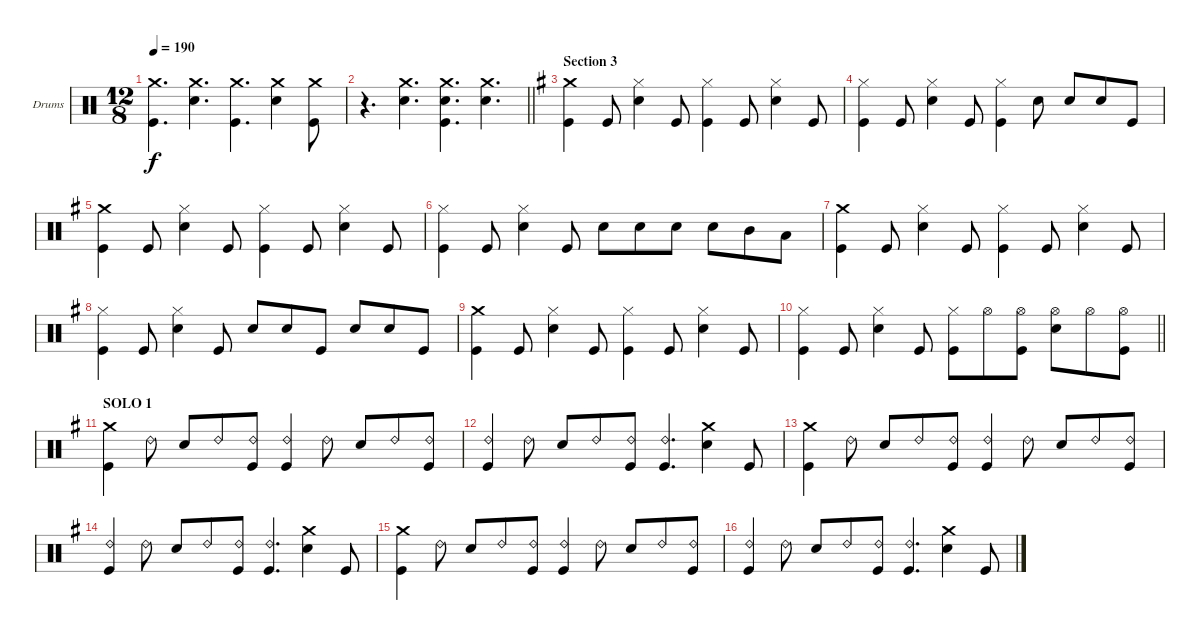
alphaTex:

\bracketExtendMode groupsimilarinstruments
\firstSystemTrackNameOrientation horizontal
\otherSystemsTrackNameOrientation horizontal
\track ("Drumkit" "Drums") {instrument percussion}
\staff {score}
\articulation defaults
\ts (12 8)
\tempo 190
\clef neutral
\ks aminor
("Crash medium (hit)" "Kick (hit)").4{d dy f} ("Crash medium (hit)" "Snare (hit) 2").4{d} ("Crash medium (hit)" "Kick (hit)").4{d} ("Crash medium (hit)" "Snare (hit) 2").4 ("Crash medium (hit)" "Kick (hit)").8 |
\barLineRight lightlight
r.4{d} ("Crash medium (hit)" "Snare (hit) 2").4{d} ("Crash medium (hit)" "Snare (hit) 2" "Kick (hit)").4{d} ("Crash medium (hit)" "Snare (hit) 2").4{d} |
\section ("" "Section 3 ")
\ks eminor
("Crash medium (hit)" "Kick (hit)").4 "Kick (hit)".8 ("Hi-Hat (closed)" "Snare (hit) 2").4 "Kick (hit)".8 ("Hi-Hat (closed)" "Kick (hit)").4 "Kick (hit)".8 ("Hi-Hat (closed)" "Snare (hit) 2").4 "Kick (hit)".8 |
("Hi-Hat (closed)" "Kick (hit)").4 "Kick (hit)".8 ("Hi-Hat (closed)" "Snare (hit) 2").4 "Kick (hit)".8 ("Hi-Hat (closed)" "Kick (hit)").4 "Snare (hit) 2".8 "Snare (hit) 2".8 "Snare (hit) 2".8 "Kick (hit)".8 |
("Crash medium (hit)" "Kick (hit)").4 "Kick (hit)".8 ("Hi-Hat (closed)" "Snare (hit) 2").4 "Kick (hit)".8 ("Hi-Hat (closed)" "Kick (hit)").4 "Kick (hit)".8 ("Hi-Hat (closed)" "Snare (hit) 2").4 "Kick (hit)".8 |
("Hi-Hat (closed)" "Kick (hit)").4 "Kick (hit)".8 ("Hi-Hat (closed)" "Snare (hit) 2").4 "Kick (hit)".8 "Snare (hit) 2".8 "Snare (hit) 2".8 "Snare (hit) 2".8 "Snare (hit) 2".8 "Mid Tom (hit)".8 "Low Tom (hit)".8 |
("Crash medium (hit)" "Kick (hit)").4 "Kick (hit)".8 ("Hi-Hat (closed)" "Snare (hit) 2").4 "Kick (hit)".8 ("Hi-Hat (closed)" "Kick (hit)").4 "Kick (hit)".8 ("Hi-Hat (closed)" "Snare (hit) 2").4 "Kick (hit)".8 |
("Hi-Hat (closed)" "Kick (hit)").4 "Kick (hit)".8 ("Hi-Hat (closed)" "Snare (hit) 2").4 "Kick (hit)".8 "Snare (hit) 2".8 "Snare (hit) 2".8 "Kick (hit)".8 "Snare (hit) 2".8 "Snare (hit) 2".8 "Kick (hit)".8 |
("Crash medium (hit)" "Kick (hit)").4 "Kick (hit)".8 ("Hi-Hat (closed)" "Snare (hit) 2").4 "Kick (hit)".8 ("Hi-Hat (closed)" "Kick (hit)").4 "Kick (hit)".8 ("Hi-Hat (closed)" "Snare (hit) 2").4 "Kick (hit)".8 |
\barLineRight lightlight
("Hi-Hat (closed)" "Kick (hit)").4 "Kick (hit)".8 ("Hi-Hat (closed)" "Snare (hit) 2").4 "Kick (hit)".8 ("Hi-Hat (closed)" "Kick (hit)").8 "Hi-Hat (open)".8 ("Hi-Hat (open)" "Kick (hit)").8 ("Hi-Hat (open)" "Snare (hit) 2").8 "Hi-Hat (open)".8 ("Hi-Hat (open)" "Kick (hit)").8 |
\section ("" "SOLO 1")
("Crash medium (hit)" "Kick (hit)").4 "Ride (bell) 2".8 "Snare (hit) 2".8 "Ride (bell) 2".8 ("Ride (bell) 2" "Kick (hit)").8 ("Ride (bell) 2" "Kick (hit)").4 "Ride (bell) 2".8 "Snare (hit) 2".8 "Ride (bell) 2".8 ("Ride (bell) 2" "Kick (hit)").8 |
("Ride (bell) 2" "Kick (hit)").4 "Ride (bell) 2".8 "Snare (hit) 2".8 "Ride (bell) 2".8 ("Ride (bell) 2" "Kick (hit)").8 ("Ride (bell) 2" "Kick (hit)").4{d} ("Crash medium (hit)" "Snare (hit) 2").4 "Kick (hit)".8 |
("Crash medium (hit)" "Kick (hit)").4 "Ride (bell) 2".8 "Snare (hit) 2".8 "Ride (bell) 2".8 ("Ride (bell) 2" "Kick (hit)").8 ("Ride (bell) 2" "Kick (hit)").4 "Ride (bell) 2".8 "Snare (hit) 2".8 "Ride (bell) 2".8 ("Ride (bell) 2" "Kick (hit)").8 |
("Ride (bell) 2" "Kick (hit)").4 "Ride (bell) 2".8 "Snare (hit) 2".8 "Ride (bell) 2".8 ("Ride (bell) 2" "Kick (hit)").8 ("Ride (bell) 2" "Kick (hit)").4{d} ("Crash medium (hit)" "Snare (hit) 2").4 "Kick (hit)".8 |
("Crash medium (hit)" "Kick (hit)").4 "Ride (bell) 2".8 "Snare (hit) 2".8 "Ride (bell) 2".8 ("Ride (bell) 2" "Kick (hit)").8 ("Ride (bell) 2" "Kick (hit)").4 "Ride (bell) 2".8 "Snare (hit) 2".8 "Ride (bell) 2".8 ("Ride (bell) 2" "Kick (hit)").8 |
("Ride (bell) 2" "Kick (hit)").4 "Ride (bell) 2".8 "Snare (hit) 2".8 "Ride (bell) 2".8 ("Ride (bell) 2" "Kick (hit)").8 ("Ride (bell) 2" "Kick (hit)").4{d} ("Crash medium (hit)" "Snare (hit) 2").4 "Kick (hit)".8
